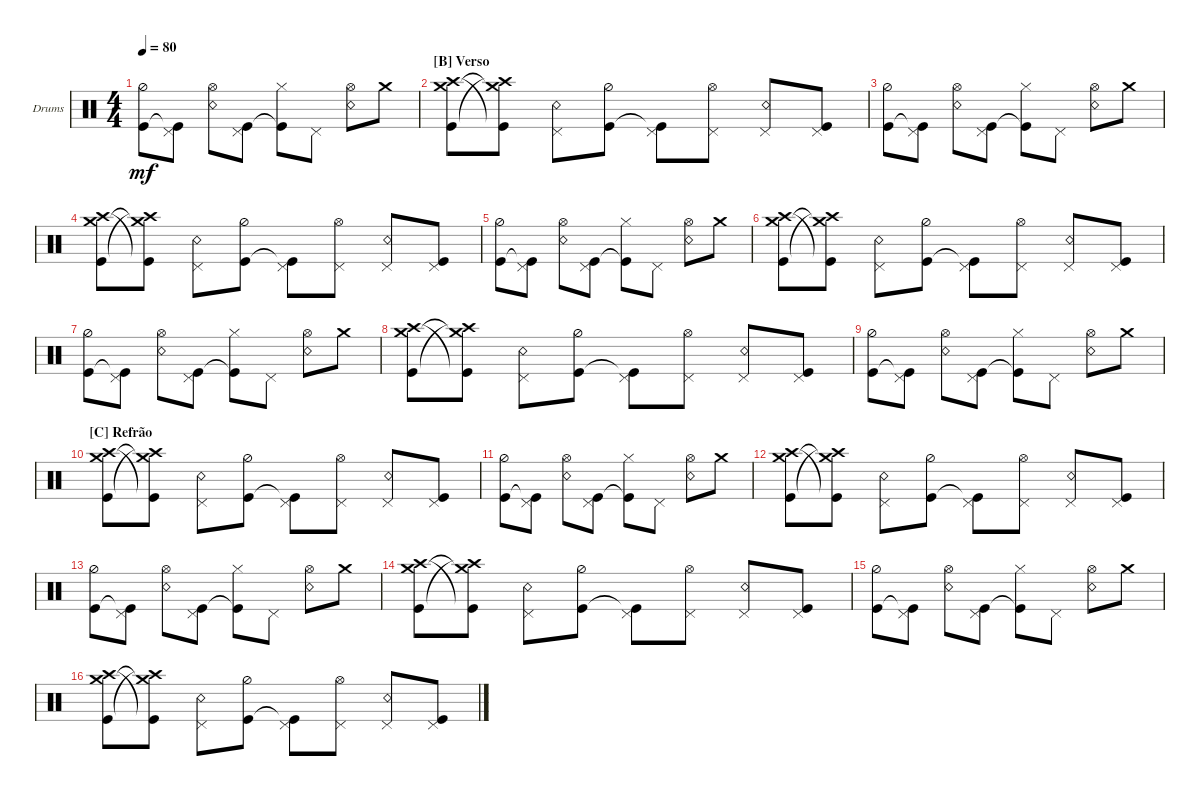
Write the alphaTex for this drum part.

\defaultSystemsLayout 4
\bracketExtendMode groupsimilarinstruments
\firstSystemTrackNameOrientation horizontal
\otherSystemsTrackNameOrientation horizontal
\track ("Drum" "Drums") {multiBarRest instrument percussion}
\staff {score}
\articulation defaults
\ts (4 4)
\tempo 80
\clef neutral
\ks c
("Kick (hit)" "Hi-Hat (half)").8{dy mf} ("Kick (hit)"{t} "Pedal Hi-Hat (hit)").8 ("Snare (rim shot)" "Hi-Hat (open)").8 ("Kick (hit)" "Pedal Hi-Hat (hit)").8 ("Kick (hit)"{t} "Hi-Hat (closed)").8 "Pedal Hi-Hat (hit)".8 ("Snare (rim shot)" "Hi-Hat (open)").8 "Crash medium (hit)".8 |
\section ("B" "Verso")
("Crash high (hit)" "Kick (hit)" "Crash medium (hit)").8 ("Kick (hit)"{t} "Crash high (hit)"{t} "Crash medium (hit)"{t}).8 ("Snare (rim shot)" "Pedal Hi-Hat (hit)").8 ("Kick (hit)" "Hi-Hat (half)").8 ("Kick (hit)"{t} "Pedal Hi-Hat (hit)").8 ("Pedal Hi-Hat (hit)" "Hi-Hat (open)").8 ("Snare (rim shot)" "Pedal Hi-Hat (hit)").8 ("Kick (hit)" "Pedal Hi-Hat (hit)").8 |
("Kick (hit)" "Hi-Hat (half)").8 ("Kick (hit)"{t} "Pedal Hi-Hat (hit)").8 ("Snare (rim shot)" "Hi-Hat (open)").8 ("Kick (hit)" "Pedal Hi-Hat (hit)").8 ("Kick (hit)"{t} "Hi-Hat (closed)").8 "Pedal Hi-Hat (hit)".8 ("Snare (rim shot)" "Hi-Hat (open)").8 "Crash medium (hit)".8 |
("Crash high (hit)" "Kick (hit)" "Crash medium (hit)").8 ("Kick (hit)"{t} "Crash high (hit)"{t} "Crash medium (hit)"{t}).8 ("Snare (rim shot)" "Pedal Hi-Hat (hit)").8 ("Kick (hit)" "Hi-Hat (half)").8 ("Kick (hit)"{t} "Pedal Hi-Hat (hit)").8 ("Pedal Hi-Hat (hit)" "Hi-Hat (open)").8 ("Snare (rim shot)" "Pedal Hi-Hat (hit)").8 ("Kick (hit)" "Pedal Hi-Hat (hit)").8 |
("Kick (hit)" "Hi-Hat (half)").8 ("Kick (hit)"{t} "Pedal Hi-Hat (hit)").8 ("Snare (rim shot)" "Hi-Hat (open)").8 ("Kick (hit)" "Pedal Hi-Hat (hit)").8 ("Kick (hit)"{t} "Hi-Hat (closed)").8 "Pedal Hi-Hat (hit)".8 ("Snare (rim shot)" "Hi-Hat (open)").8 "Crash medium (hit)".8 |
("Crash high (hit)" "Kick (hit)" "Crash medium (hit)").8 ("Kick (hit)"{t} "Crash high (hit)"{t} "Crash medium (hit)"{t}).8 ("Snare (rim shot)" "Pedal Hi-Hat (hit)").8 ("Kick (hit)" "Hi-Hat (half)").8 ("Kick (hit)"{t} "Pedal Hi-Hat (hit)").8 ("Pedal Hi-Hat (hit)" "Hi-Hat (open)").8 ("Snare (rim shot)" "Pedal Hi-Hat (hit)").8 ("Kick (hit)" "Pedal Hi-Hat (hit)").8 |
("Kick (hit)" "Hi-Hat (half)").8 ("Kick (hit)"{t} "Pedal Hi-Hat (hit)").8 ("Snare (rim shot)" "Hi-Hat (open)").8 ("Kick (hit)" "Pedal Hi-Hat (hit)").8 ("Kick (hit)"{t} "Hi-Hat (closed)").8 "Pedal Hi-Hat (hit)".8 ("Snare (rim shot)" "Hi-Hat (open)").8 "Crash medium (hit)".8 |
("Crash high (hit)" "Kick (hit)" "Crash medium (hit)").8 ("Kick (hit)"{t} "Crash high (hit)"{t} "Crash medium (hit)"{t}).8 ("Snare (rim shot)" "Pedal Hi-Hat (hit)").8 ("Kick (hit)" "Hi-Hat (half)").8 ("Kick (hit)"{t} "Pedal Hi-Hat (hit)").8 ("Pedal Hi-Hat (hit)" "Hi-Hat (open)").8 ("Snare (rim shot)" "Pedal Hi-Hat (hit)").8 ("Kick (hit)" "Pedal Hi-Hat (hit)").8 |
("Kick (hit)" "Hi-Hat (half)").8 ("Kick (hit)"{t} "Pedal Hi-Hat (hit)").8 ("Snare (rim shot)" "Hi-Hat (open)").8 ("Kick (hit)" "Pedal Hi-Hat (hit)").8 ("Kick (hit)"{t} "Hi-Hat (closed)").8 "Pedal Hi-Hat (hit)".8 ("Snare (rim shot)" "Hi-Hat (open)").8 "Crash medium (hit)".8 |
\section ("C" "Refrão")
("Crash high (hit)" "Kick (hit)" "Crash medium (hit)").8 ("Kick (hit)"{t} "Crash high (hit)"{t} "Crash medium (hit)"{t}).8 ("Snare (rim shot)" "Pedal Hi-Hat (hit)").8 ("Kick (hit)" "Hi-Hat (half)").8 ("Kick (hit)"{t} "Pedal Hi-Hat (hit)").8 ("Pedal Hi-Hat (hit)" "Hi-Hat (open)").8 ("Snare (rim shot)" "Pedal Hi-Hat (hit)").8 ("Kick (hit)" "Pedal Hi-Hat (hit)").8 |
("Kick (hit)" "Hi-Hat (half)").8 ("Kick (hit)"{t} "Pedal Hi-Hat (hit)").8 ("Snare (rim shot)" "Hi-Hat (open)").8 ("Kick (hit)" "Pedal Hi-Hat (hit)").8 ("Kick (hit)"{t} "Hi-Hat (closed)").8 "Pedal Hi-Hat (hit)".8 ("Snare (rim shot)" "Hi-Hat (open)").8 "Crash medium (hit)".8 |
("Crash high (hit)" "Kick (hit)" "Crash medium (hit)").8 ("Kick (hit)"{t} "Crash high (hit)"{t} "Crash medium (hit)"{t}).8 ("Snare (rim shot)" "Pedal Hi-Hat (hit)").8 ("Kick (hit)" "Hi-Hat (half)").8 ("Kick (hit)"{t} "Pedal Hi-Hat (hit)").8 ("Pedal Hi-Hat (hit)" "Hi-Hat (open)").8 ("Snare (rim shot)" "Pedal Hi-Hat (hit)").8 ("Kick (hit)" "Pedal Hi-Hat (hit)").8 |
("Kick (hit)" "Hi-Hat (half)").8 ("Kick (hit)"{t} "Pedal Hi-Hat (hit)").8 ("Snare (rim shot)" "Hi-Hat (open)").8 ("Kick (hit)" "Pedal Hi-Hat (hit)").8 ("Kick (hit)"{t} "Hi-Hat (closed)").8 "Pedal Hi-Hat (hit)".8 ("Snare (rim shot)" "Hi-Hat (open)").8 "Crash medium (hit)".8 |
("Crash high (hit)" "Kick (hit)" "Crash medium (hit)").8 ("Kick (hit)"{t} "Crash high (hit)"{t} "Crash medium (hit)"{t}).8 ("Snare (rim shot)" "Pedal Hi-Hat (hit)").8 ("Kick (hit)" "Hi-Hat (half)").8 ("Kick (hit)"{t} "Pedal Hi-Hat (hit)").8 ("Pedal Hi-Hat (hit)" "Hi-Hat (open)").8 ("Snare (rim shot)" "Pedal Hi-Hat (hit)").8 ("Kick (hit)" "Pedal Hi-Hat (hit)").8 |
("Kick (hit)" "Hi-Hat (half)").8 ("Kick (hit)"{t} "Pedal Hi-Hat (hit)").8 ("Snare (rim shot)" "Hi-Hat (open)").8 ("Kick (hit)" "Pedal Hi-Hat (hit)").8 ("Kick (hit)"{t} "Hi-Hat (closed)").8 "Pedal Hi-Hat (hit)".8 ("Snare (rim shot)" "Hi-Hat (open)").8 "Crash medium (hit)".8 |
("Crash high (hit)" "Kick (hit)" "Crash medium (hit)").8 ("Kick (hit)"{t} "Crash high (hit)"{t} "Crash medium (hit)"{t}).8 ("Snare (rim shot)" "Pedal Hi-Hat (hit)").8 ("Kick (hit)" "Hi-Hat (half)").8 ("Kick (hit)"{t} "Pedal Hi-Hat (hit)").8 ("Pedal Hi-Hat (hit)" "Hi-Hat (open)").8 ("Snare (rim shot)" "Pedal Hi-Hat (hit)").8 ("Kick (hit)" "Pedal Hi-Hat (hit)").8
